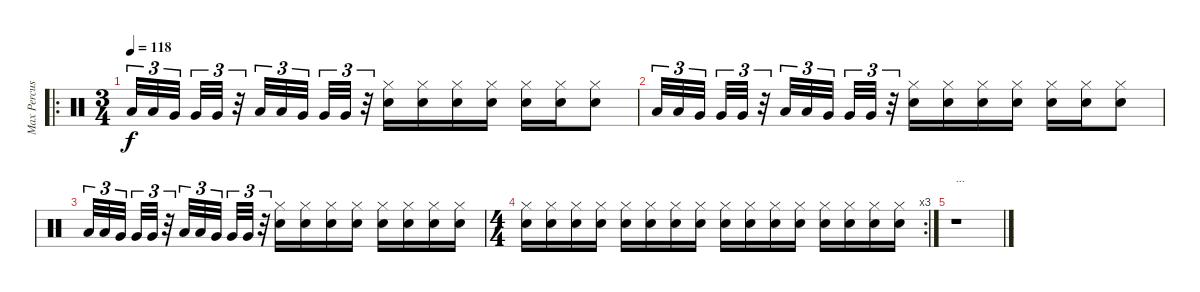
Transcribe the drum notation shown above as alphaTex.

\track ("Max Percussion" "Max Percus") {instrument percussion}
\staff {score}
\articulation defaults
\ro
\ts (3 4)
\tempo 118
\clef neutral
\ks c "Low Tom (hit)".32{tu (3 2) dy f} "Low Tom (hit)".32{tu (3 2)} "Very Low Tom (hit)".32{tu (3 2)} "Very Low Tom (hit)".32{tu (3 2)} "Very Low Tom (hit)".32{tu (3 2)}
r.32{tu (3 2)} "Low Tom (hit)".32{tu (3 2)} "Low Tom (hit)".32{tu (3 2)} "Very Low Tom (hit)".32{tu (3 2)} "Very Low Tom (hit)".32{tu (3 2)} "Very Low Tom (hit)".32{tu (3 2)} r.32{tu (3 2)} ("Hi-Hat (closed)" "Snare (hit) 2").16 ("Hi-Hat (closed)" "Snare (hit) 2").16 ("Hi-Hat (closed)" "Snare (hit) 2").16 ("Hi-Hat (closed)" "Snare (hit) 2").16 ("Hi-Hat (closed)" "Snare (hit) 2").16 ("Hi-Hat (closed)" "Snare (hit) 2").16 ("Hi-Hat (closed)" "Snare (hit) 2").8 |
"Low Tom (hit)".32{tu (3 2)} "Low Tom (hit)".32{tu (3 2)} "Very Low Tom (hit)".32{tu (3 2)} "Very Low Tom (hit)".32{tu (3 2)} "Very Low Tom (hit)".32{tu (3 2)} r.32{tu (3 2)} "Low Tom (hit)".32{tu (3 2)} "Low Tom (hit)".32{tu (3 2)} "Very Low Tom (hit)".32{tu (3 2)} "Very Low Tom (hit)".32{tu (3 2)} "Very Low Tom (hit)".32{tu (3 2)} r.32{tu (3 2)} ("Hi-Hat (closed)" "Snare (hit) 2").16 ("Hi-Hat (closed)" "Snare (hit) 2").16 ("Hi-Hat (closed)" "Snare (hit) 2").16 ("Hi-Hat (closed)" "Snare (hit) 2").16 ("Hi-Hat (closed)" "Snare (hit) 2").16 ("Hi-Hat (closed)" "Snare (hit) 2").16 ("Hi-Hat (closed)" "Snare (hit) 2").8 |
"Low Tom (hit)".32{tu (3 2)} "Low Tom (hit)".32{tu (3 2)} "Very Low Tom (hit)".32{tu (3 2)} "Very Low Tom (hit)".32{tu (3 2)} "Very Low Tom (hit)".32{tu (3 2)} r.32{tu (3 2)} "Low Tom (hit)".32{tu (3 2)} "Low Tom (hit)".32{tu (3 2)} "Very Low Tom (hit)".32{tu (3 2)} "Very Low Tom (hit)".32{tu (3 2)} "Very Low Tom (hit)".32{tu (3 2)} r.32{tu (3 2)} ("Hi-Hat (closed)" "Snare (hit) 2").16 ("Hi-Hat (closed)" "Snare (hit) 2").16 ("Hi-Hat (closed)" "Snare (hit) 2").16 ("Hi-Hat (closed)" "Snare (hit) 2").16 ("Hi-Hat (closed)" "Snare (hit) 2").16 ("Hi-Hat (closed)" "Snare (hit) 2").16 ("Hi-Hat (closed)" "Snare (hit) 2").16 ("Hi-Hat (closed)" "Snare (hit) 2").16 |
\rc 3
\ts (4 4)
("Hi-Hat (closed)" "Snare (hit) 2").16 ("Hi-Hat (closed)" "Snare (hit) 2").16 ("Hi-Hat (closed)" "Snare (hit) 2").16 ("Hi-Hat (closed)" "Snare (hit) 2").16 ("Hi-Hat (closed)" "Snare (hit) 2").16 ("Hi-Hat (closed)" "Snare (hit) 2").16 ("Hi-Hat (closed)" "Snare (hit) 2").16 ("Hi-Hat (closed)" "Snare (hit) 2").16 ("Hi-Hat (closed)" "Snare (hit) 2").16 ("Hi-Hat (closed)" "Snare (hit) 2").16 ("Hi-Hat (closed)" "Snare (hit) 2").16 ("Hi-Hat (closed)" "Snare (hit) 2").16 ("Hi-Hat (closed)" "Snare (hit) 2").16 ("Hi-Hat (closed)" "Snare (hit) 2").16 ("Hi-Hat (closed)" "Snare (hit) 2").16 ("Hi-Hat (closed)" "Snare (hit) 2").16 |
r.1{txt "..."}
